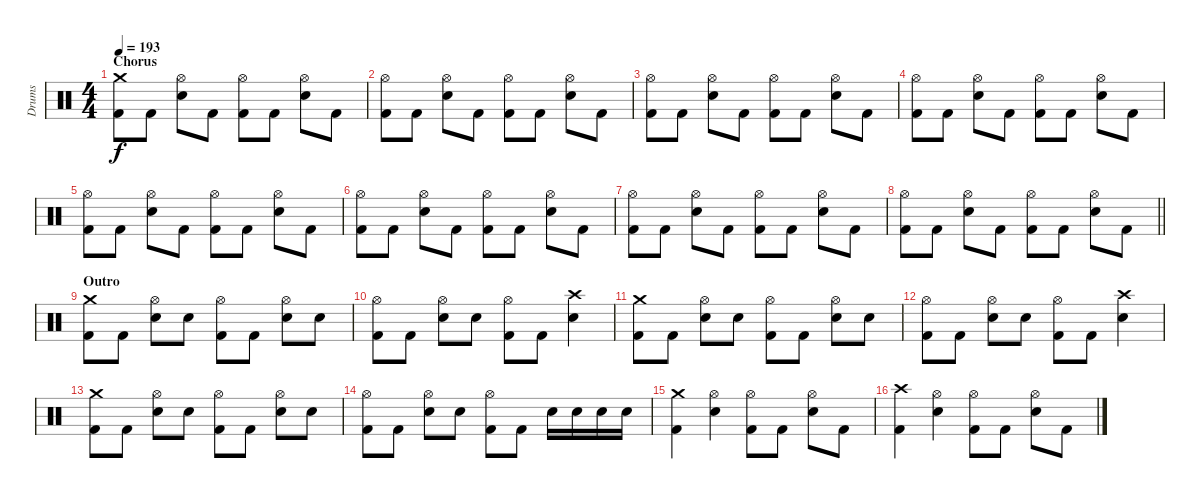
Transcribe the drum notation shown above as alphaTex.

\track ("Drums" "Drums") {instrument percussion}
\staff {score}
\articulation defaults
\ts (4 4)
\section ("" "Chorus")
\tempo 193
\clef neutral
\ks c
("Crash medium (hit)" "Kick (hit) 2").8{dy f} "Kick (hit) 2".8 ("Hi-Hat (open)" "Electric Snare (hit)").8 "Kick (hit) 2".8 ("Hi-Hat (open)" "Kick (hit) 2").8 "Kick (hit) 2".8 ("Hi-Hat (open)" "Electric Snare (hit)").8 "Kick (hit) 2".8 |
("Hi-Hat (open)" "Kick (hit) 2").8 "Kick (hit) 2".8 ("Hi-Hat (open)" "Electric Snare (hit)").8 "Kick (hit) 2".8 ("Hi-Hat (open)" "Kick (hit) 2").8 "Kick (hit) 2".8 ("Hi-Hat (open)" "Electric Snare (hit)").8 "Kick (hit) 2".8 |
("Hi-Hat (open)" "Kick (hit) 2").8 "Kick (hit) 2".8 ("Hi-Hat (open)" "Electric Snare (hit)").8 "Kick (hit) 2".8 ("Hi-Hat (open)" "Kick (hit) 2").8 "Kick (hit) 2".8 ("Hi-Hat (open)" "Electric Snare (hit)").8 "Kick (hit) 2".8 |
("Hi-Hat (open)" "Kick (hit) 2").8 "Kick (hit) 2".8 ("Hi-Hat (open)" "Electric Snare (hit)").8 "Kick (hit) 2".8 ("Hi-Hat (open)" "Kick (hit) 2").8 "Kick (hit) 2".8 ("Hi-Hat (open)" "Electric Snare (hit)").8 "Kick (hit) 2".8 |
("Hi-Hat (open)" "Kick (hit) 2").8 "Kick (hit) 2".8 ("Hi-Hat (open)" "Electric Snare (hit)").8 "Kick (hit) 2".8 ("Hi-Hat (open)" "Kick (hit) 2").8 "Kick (hit) 2".8 ("Hi-Hat (open)" "Electric Snare (hit)").8 "Kick (hit) 2".8 |
("Hi-Hat (open)" "Kick (hit) 2").8 "Kick (hit) 2".8 ("Hi-Hat (open)" "Electric Snare (hit)").8 "Kick (hit) 2".8 ("Hi-Hat (open)" "Kick (hit) 2").8 "Kick (hit) 2".8 ("Hi-Hat (open)" "Electric Snare (hit)").8 "Kick (hit) 2".8 |
("Hi-Hat (open)" "Kick (hit) 2").8 "Kick (hit) 2".8 ("Hi-Hat (open)" "Electric Snare (hit)").8 "Kick (hit) 2".8 ("Hi-Hat (open)" "Kick (hit) 2").8 "Kick (hit) 2".8 ("Hi-Hat (open)" "Electric Snare (hit)").8 "Kick (hit) 2".8 |
\barLineRight lightlight
("Hi-Hat (open)" "Kick (hit) 2").8 "Kick (hit) 2".8 ("Hi-Hat (open)" "Electric Snare (hit)").8 "Kick (hit) 2".8 ("Hi-Hat (open)" "Kick (hit) 2").8 "Kick (hit) 2".8 ("Hi-Hat (open)" "Electric Snare (hit)").8 "Kick (hit) 2".8 |
\section ("" "Outro")
("Crash medium (hit)" "Kick (hit) 2").8 "Kick (hit) 2".8 ("Hi-Hat (open)" "Electric Snare (hit)").8 "Electric Snare (hit)".8 ("Hi-Hat (open)" "Kick (hit) 2").8 "Kick (hit) 2".8 ("Hi-Hat (open)" "Electric Snare (hit)").8 "Electric Snare (hit)".8 |
("Hi-Hat (open)" "Kick (hit) 2").8 "Kick (hit) 2".8 ("Hi-Hat (open)" "Electric Snare (hit)").8 "Electric Snare (hit)".8 ("Hi-Hat (open)" "Kick (hit) 2").8 "Kick (hit) 2".8 ("Crash high (hit)" "Electric Snare (hit)").4 |
("Crash medium (hit)" "Kick (hit) 2").8 "Kick (hit) 2".8 ("Hi-Hat (open)" "Electric Snare (hit)").8 "Electric Snare (hit)".8 ("Hi-Hat (open)" "Kick (hit) 2").8 "Kick (hit) 2".8 ("Hi-Hat (open)" "Electric Snare (hit)").8 "Electric Snare (hit)".8 |
("Hi-Hat (open)" "Kick (hit) 2").8 "Kick (hit) 2".8 ("Hi-Hat (open)" "Electric Snare (hit)").8 "Electric Snare (hit)".8 ("Hi-Hat (open)" "Kick (hit) 2").8 "Kick (hit) 2".8 ("Crash high (hit)" "Electric Snare (hit)").4 |
("Crash medium (hit)" "Kick (hit) 2").8 "Kick (hit) 2".8 ("Hi-Hat (open)" "Electric Snare (hit)").8 "Electric Snare (hit)".8 ("Hi-Hat (open)" "Kick (hit) 2").8 "Kick (hit) 2".8 ("Hi-Hat (open)" "Electric Snare (hit)").8 "Electric Snare (hit)".8 |
("Hi-Hat (open)" "Kick (hit) 2").8 "Kick (hit) 2".8 ("Hi-Hat (open)" "Electric Snare (hit)").8 "Electric Snare (hit)".8 ("Hi-Hat (open)" "Kick (hit) 2").8 "Kick (hit) 2".8 "Electric Snare (hit)".16 "Electric Snare (hit)".16 "Electric Snare (hit)".16 "Electric Snare (hit)".16 |
("Crash medium (hit)" "Kick (hit) 2").4 ("Hi-Hat (open)" "Electric Snare (hit)").4 ("Hi-Hat (open)" "Kick (hit) 2").8 "Kick (hit) 2".8 ("Hi-Hat (open)" "Electric Snare (hit)").8 "Kick (hit) 2".8 |
("Crash high (hit)" "Kick (hit) 2").4 ("Hi-Hat (open)" "Electric Snare (hit)").4 ("Hi-Hat (open)" "Kick (hit) 2").8 "Kick (hit) 2".8 ("Hi-Hat (open)" "Electric Snare (hit)").8 "Kick (hit) 2".8
